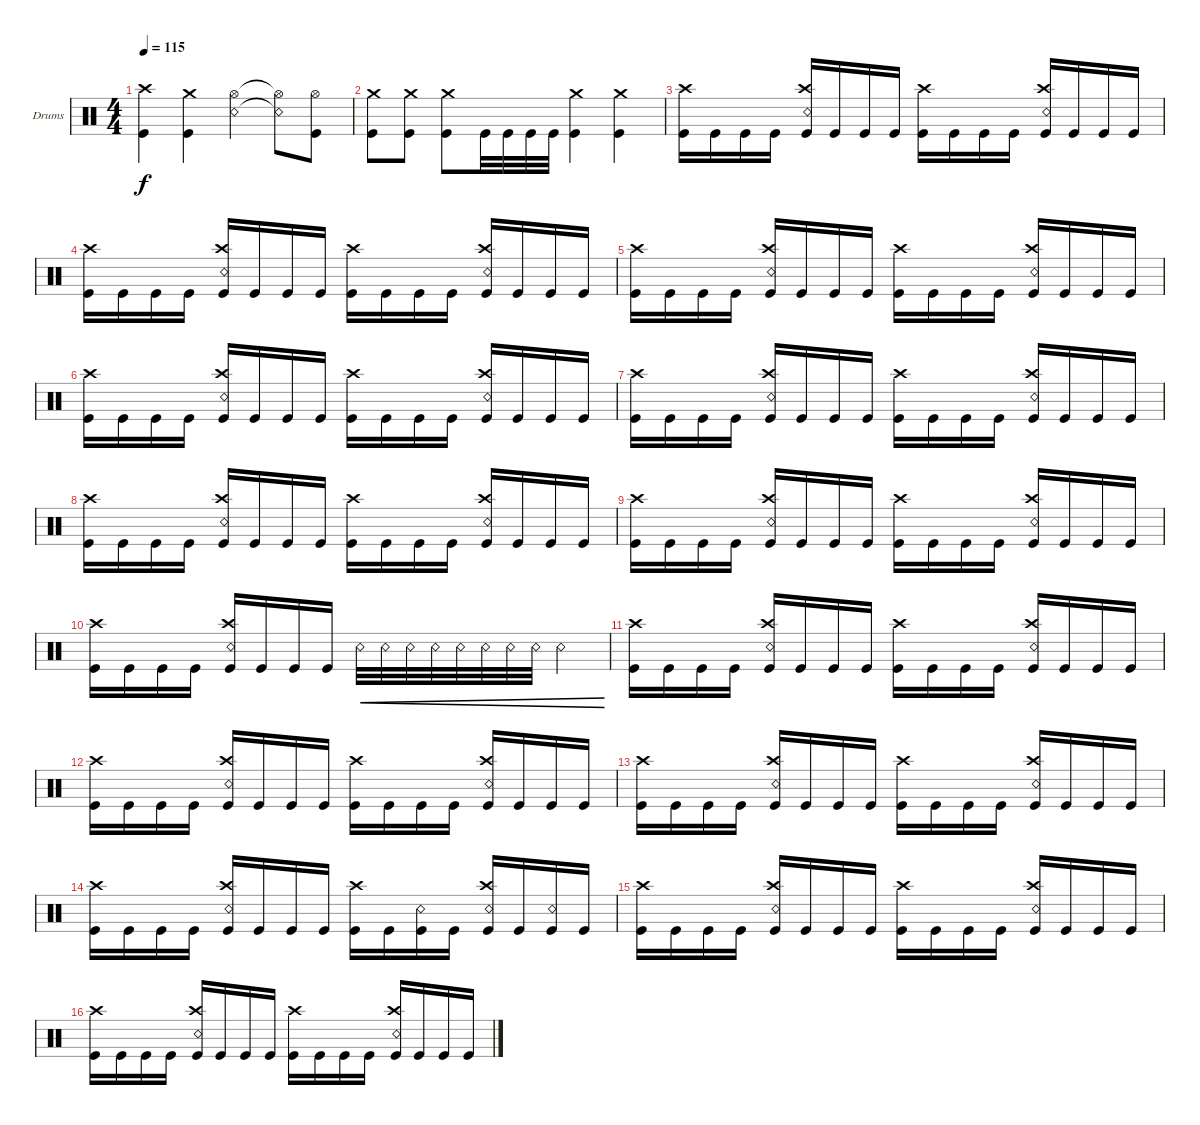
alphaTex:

\bracketExtendMode groupsimilarinstruments
\firstSystemTrackNameOrientation horizontal
\otherSystemsTrackNameOrientation horizontal
\track ("Drumkit" "Drums") {instrument percussion}
\staff {score}
\articulation defaults
\ts (4 4)
\tempo 115
\clef neutral
\scale
0.333333
\ks c
("Kick (hit)" "Crash high (hit)").4{dy f} ("Kick (hit)" "Crash medium (hit)").4 ("Snare (rim shot)" "Hi-Hat (open)").4 ("Snare (rim shot)"{t} "Hi-Hat (open)"{t}).8 ("Kick (hit)" "Hi-Hat (open)").8 |
\scale
0.333333 ("Kick (hit)" "Crash medium (hit)").8 ("Kick (hit)" "Crash medium (hit)").8 ("Kick (hit)" "Crash medium (hit)").8 "Kick (hit)".32 "Kick (hit)".32 "Kick (hit)".32 "Kick (hit)".32 ("Kick (hit)" "Crash medium (hit)").4 ("Kick (hit)" "Crash medium (hit)").4 |
\scale
0.333333 ("Kick (hit)" "Crash high (hit)").16 "Kick (hit)".16 "Kick (hit)".16 "Kick (hit)".16 ("Kick (hit)" "Snare (rim shot)" "Crash high (hit)").16 "Kick (hit)".16 "Kick (hit)".16 "Kick (hit)".16 ("Kick (hit)" "Crash high (hit)").16 "Kick (hit)".16 "Kick (hit)".16 "Kick (hit)".16 ("Kick (hit)" "Snare (rim shot)" "Crash high (hit)").16 "Kick (hit)".16 "Kick (hit)".16 "Kick (hit)".16 |
\scale
0.333333 ("Kick (hit)" "Crash high (hit)").16 "Kick (hit)".16 "Kick (hit)".16 "Kick (hit)".16 ("Kick (hit)" "Snare (rim shot)" "Crash high (hit)").16 "Kick (hit)".16 "Kick (hit)".16 "Kick (hit)".16 ("Kick (hit)" "Crash high (hit)").16 "Kick (hit)".16 "Kick (hit)".16 "Kick (hit)".16 ("Kick (hit)" "Snare (rim shot)" "Crash high (hit)").16 "Kick (hit)".16 "Kick (hit)".16 "Kick (hit)".16 |
\scale
0.333333 ("Kick (hit)" "Crash high (hit)").16 "Kick (hit)".16 "Kick (hit)".16 "Kick (hit)".16 ("Kick (hit)" "Snare (rim shot)" "Crash high (hit)").16 "Kick (hit)".16 "Kick (hit)".16 "Kick (hit)".16 ("Kick (hit)" "Crash high (hit)").16 "Kick (hit)".16 "Kick (hit)".16 "Kick (hit)".16 ("Kick (hit)" "Snare (rim shot)" "Crash high (hit)").16 "Kick (hit)".16 "Kick (hit)".16 "Kick (hit)".16 |
\scale
0.333333 ("Kick (hit)" "Crash high (hit)").16 "Kick (hit)".16 "Kick (hit)".16 "Kick (hit)".16 ("Kick (hit)" "Snare (rim shot)" "Crash high (hit)").16 "Kick (hit)".16 "Kick (hit)".16 "Kick (hit)".16 ("Kick (hit)" "Crash high (hit)").16 "Kick (hit)".16 "Kick (hit)".16 "Kick (hit)".16 ("Kick (hit)" "Snare (rim shot)" "Crash high (hit)").16 "Kick (hit)".16 "Kick (hit)".16 "Kick (hit)".16 |
\scale
0.333333 ("Kick (hit)" "Crash high (hit)").16 "Kick (hit)".16 "Kick (hit)".16 "Kick (hit)".16 ("Kick (hit)" "Snare (rim shot)" "Crash high (hit)").16 "Kick (hit)".16 "Kick (hit)".16 "Kick (hit)".16 ("Kick (hit)" "Crash high (hit)").16 "Kick (hit)".16 "Kick (hit)".16 "Kick (hit)".16 ("Kick (hit)" "Snare (rim shot)" "Crash high (hit)").16 "Kick (hit)".16 "Kick (hit)".16 "Kick (hit)".16 |
\scale
0.333333 ("Kick (hit)" "Crash high (hit)").16 "Kick (hit)".16 "Kick (hit)".16 "Kick (hit)".16 ("Kick (hit)" "Snare (rim shot)" "Crash high (hit)").16 "Kick (hit)".16 "Kick (hit)".16 "Kick (hit)".16 ("Kick (hit)" "Crash high (hit)").16 "Kick (hit)".16 "Kick (hit)".16 "Kick (hit)".16 ("Kick (hit)" "Snare (rim shot)" "Crash high (hit)").16 "Kick (hit)".16 "Kick (hit)".16 "Kick (hit)".16 |
\scale
0.333333 ("Kick (hit)" "Crash high (hit)").16 "Kick (hit)".16 "Kick (hit)".16 "Kick (hit)".16 ("Kick (hit)" "Snare (rim shot)" "Crash high (hit)").16 "Kick (hit)".16 "Kick (hit)".16 "Kick (hit)".16 ("Kick (hit)" "Crash high (hit)").16 "Kick (hit)".16 "Kick (hit)".16 "Kick (hit)".16 ("Kick (hit)" "Snare (rim shot)" "Crash high (hit)").16 "Kick (hit)".16 "Kick (hit)".16 "Kick (hit)".16 |
\scale
0.333333 ("Kick (hit)" "Crash high (hit)").16 "Kick (hit)".16 "Kick (hit)".16 "Kick (hit)".16 ("Kick (hit)" "Snare (rim shot)" "Crash high (hit)").16 "Kick (hit)".16 "Kick (hit)".16 "Kick (hit)".16 "Snare (rim shot)".32{cre} "Snare (rim shot)".32{cre} "Snare (rim shot)".32{cre} "Snare (rim shot)".32{cre} "Snare (rim shot)".32{cre} "Snare (rim shot)".32{cre} "Snare (rim shot)".32{cre} "Snare (rim shot)".32{cre} "Snare (rim shot)".4{cre} |
\scale
0.333333 ("Kick (hit)" "Crash high (hit)").16 "Kick (hit)".16 "Kick (hit)".16 "Kick (hit)".16 ("Kick (hit)" "Snare (rim shot)" "Crash high (hit)").16 "Kick (hit)".16 "Kick (hit)".16 "Kick (hit)".16 ("Kick (hit)" "Crash high (hit)").16 "Kick (hit)".16 "Kick (hit)".16 "Kick (hit)".16 ("Kick (hit)" "Snare (rim shot)" "Crash high (hit)").16 "Kick (hit)".16 "Kick (hit)".16 "Kick (hit)".16 |
\scale
0.333333 ("Kick (hit)" "Crash high (hit)").16 "Kick (hit)".16 "Kick (hit)".16 "Kick (hit)".16 ("Kick (hit)" "Snare (rim shot)" "Crash high (hit)").16 "Kick (hit)".16 "Kick (hit)".16 "Kick (hit)".16 ("Kick (hit)" "Crash high (hit)").16 "Kick (hit)".16 "Kick (hit)".16 "Kick (hit)".16 ("Kick (hit)" "Snare (rim shot)" "Crash high (hit)").16 "Kick (hit)".16 "Kick (hit)".16 "Kick (hit)".16 |
\scale
0.333333 ("Kick (hit)" "Crash high (hit)").16 "Kick (hit)".16 "Kick (hit)".16 "Kick (hit)".16 ("Kick (hit)" "Snare (rim shot)" "Crash high (hit)").16 "Kick (hit)".16 "Kick (hit)".16 "Kick (hit)".16 ("Kick (hit)" "Crash high (hit)").16 "Kick (hit)".16 "Kick (hit)".16 "Kick (hit)".16 ("Kick (hit)" "Snare (rim shot)" "Crash high (hit)").16 "Kick (hit)".16 "Kick (hit)".16 "Kick (hit)".16 |
\scale
0.333333 ("Kick (hit)" "Crash high (hit)").16 "Kick (hit)".16 "Kick (hit)".16 "Kick (hit)".16 ("Kick (hit)" "Snare (rim shot)" "Crash high (hit)").16 "Kick (hit)".16 "Kick (hit)".16 "Kick (hit)".16 ("Kick (hit)" "Crash high (hit)").16 "Kick (hit)".16 ("Kick (hit)" "Snare (rim shot)").16 "Kick (hit)".16 ("Kick (hit)" "Snare (rim shot)" "Crash high (hit)").16 "Kick (hit)".16 ("Kick (hit)" "Snare (rim shot)").16 "Kick (hit)".16 |
\scale
0.333333 ("Kick (hit)" "Crash high (hit)").16 "Kick (hit)".16 "Kick (hit)".16 "Kick (hit)".16 ("Kick (hit)" "Snare (rim shot)" "Crash high (hit)").16 "Kick (hit)".16 "Kick (hit)".16 "Kick (hit)".16 ("Kick (hit)" "Crash high (hit)").16 "Kick (hit)".16 "Kick (hit)".16 "Kick (hit)".16 ("Kick (hit)" "Snare (rim shot)" "Crash high (hit)").16 "Kick (hit)".16 "Kick (hit)".16 "Kick (hit)".16 |
("Kick (hit)" "Crash high (hit)").16 "Kick (hit)".16 "Kick (hit)".16 "Kick (hit)".16 ("Kick (hit)" "Snare (rim shot)" "Crash high (hit)").16 "Kick (hit)".16 "Kick (hit)".16 "Kick (hit)".16 ("Kick (hit)" "Crash high (hit)").16 "Kick (hit)".16 "Kick (hit)".16 "Kick (hit)".16 ("Kick (hit)" "Snare (rim shot)" "Crash high (hit)").16 "Kick (hit)".16 "Kick (hit)".16 "Kick (hit)".16
